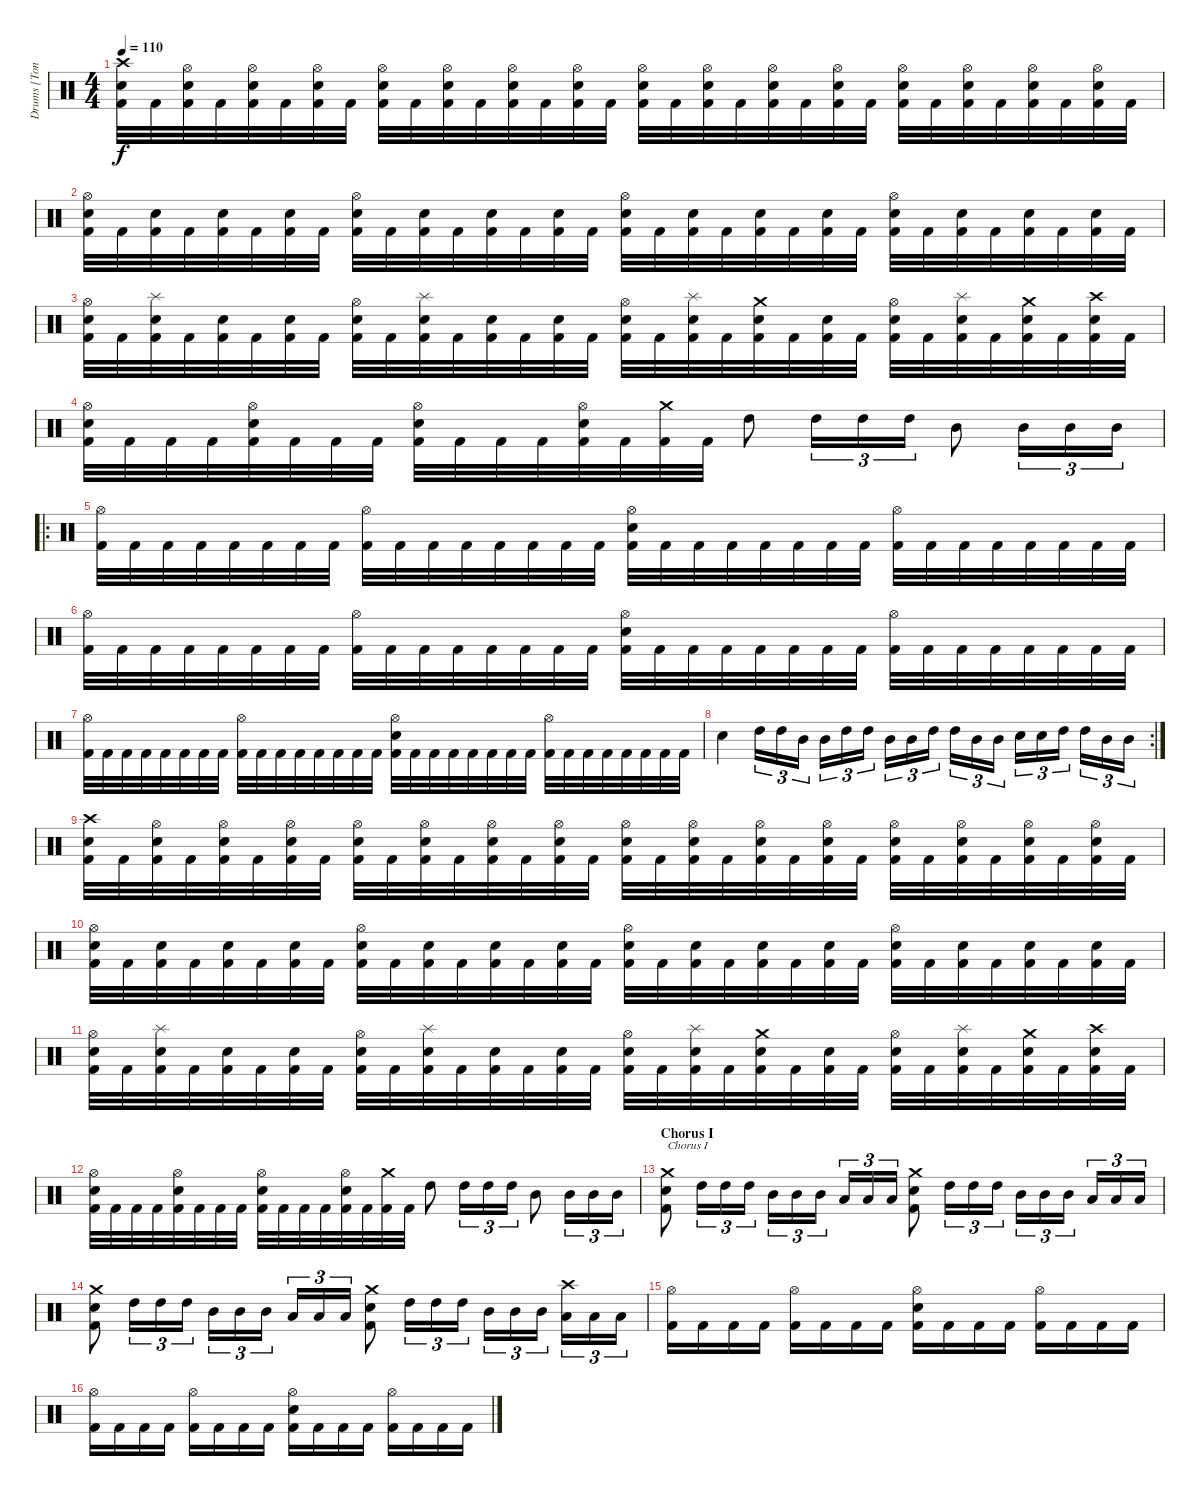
\track ("Drums [Tony Laureano]" "Drums [Ton") {instrument percussion}
\staff {score}
\articulation defaults
\ts (4 4)
\tempo 110
\clef neutral
\ks c
("Crash high (hit)" "Electric Snare (hit)" "Kick (hit) 2").32{dy f} "Kick (hit) 2".32 ("Hi-Hat (open)" "Electric Snare (hit)" "Kick (hit) 2").32 "Kick (hit) 2".32 ("Hi-Hat (open)" "Electric Snare (hit)" "Kick (hit) 2").32 "Kick (hit) 2".32 ("Hi-Hat (open)" "Electric Snare (hit)" "Kick (hit) 2").32 "Kick (hit) 2".32 ("Hi-Hat (open)" "Electric Snare (hit)" "Kick (hit) 2").32 "Kick (hit) 2".32 ("Hi-Hat (open)" "Electric Snare (hit)" "Kick (hit) 2").32 "Kick (hit) 2".32 ("Hi-Hat (open)" "Electric Snare (hit)" "Kick (hit) 2").32 "Kick (hit) 2".32 ("Hi-Hat (open)" "Electric Snare (hit)" "Kick (hit) 2").32 "Kick (hit) 2".32 ("Hi-Hat (open)" "Electric Snare (hit)" "Kick (hit) 2").32 "Kick (hit) 2".32 ("Hi-Hat (open)" "Electric Snare (hit)" "Kick (hit) 2").32 "Kick (hit) 2".32 ("Hi-Hat (open)" "Electric Snare (hit)" "Kick (hit) 2").32 "Kick (hit) 2".32 ("Hi-Hat (open)" "Electric Snare (hit)" "Kick (hit) 2").32 "Kick (hit) 2".32 ("Hi-Hat (open)" "Electric Snare (hit)" "Kick (hit) 2").32 "Kick (hit) 2".32 ("Hi-Hat (open)" "Electric Snare (hit)" "Kick (hit) 2").32 "Kick (hit) 2".32 ("Hi-Hat (open)" "Electric Snare (hit)" "Kick (hit) 2").32 "Kick (hit) 2".32 ("Hi-Hat (open)" "Electric Snare (hit)" "Kick (hit) 2").32 "Kick (hit) 2".32 |
("Hi-Hat (open)" "Electric Snare (hit)" "Kick (hit) 2").32 "Kick (hit) 2".32 ("Electric Snare (hit)" "Kick (hit) 2").32 "Kick (hit) 2".32 ("Electric Snare (hit)" "Kick (hit) 2").32 "Kick (hit) 2".32 ("Electric Snare (hit)" "Kick (hit) 2").32 "Kick (hit) 2".32 ("Hi-Hat (open)" "Electric Snare (hit)" "Kick (hit) 2").32 "Kick (hit) 2".32 ("Electric Snare (hit)" "Kick (hit) 2").32 "Kick (hit) 2".32 ("Electric Snare (hit)" "Kick (hit) 2").32 "Kick (hit) 2".32 ("Electric Snare (hit)" "Kick (hit) 2").32 "Kick (hit) 2".32 ("Hi-Hat (open)" "Electric Snare (hit)" "Kick (hit) 2").32 "Kick (hit) 2".32 ("Electric Snare (hit)" "Kick (hit) 2").32 "Kick (hit) 2".32 ("Electric Snare (hit)" "Kick (hit) 2").32 "Kick (hit) 2".32 ("Electric Snare (hit)" "Kick (hit) 2").32 "Kick (hit) 2".32 ("Hi-Hat (open)" "Electric Snare (hit)" "Kick (hit) 2").32 "Kick (hit) 2".32 ("Electric Snare (hit)" "Kick (hit) 2").32 "Kick (hit) 2".32 ("Electric Snare (hit)" "Kick (hit) 2").32 "Kick (hit) 2".32 ("Electric Snare (hit)" "Kick (hit) 2").32 "Kick (hit) 2".32 |
("Hi-Hat (open)" "Electric Snare (hit)" "Kick (hit) 2").32 "Kick (hit) 2".32 ("Splash (hit)" "Electric Snare (hit)" "Kick (hit) 2").32 "Kick (hit) 2".32 ("Electric Snare (hit)" "Kick (hit) 2").32 "Kick (hit) 2".32 ("Electric Snare (hit)" "Kick (hit) 2").32 "Kick (hit) 2".32 ("Hi-Hat (open)" "Electric Snare (hit)" "Kick (hit) 2").32 "Kick (hit) 2".32 ("Splash (hit)" "Electric Snare (hit)" "Kick (hit) 2").32 "Kick (hit) 2".32 ("Electric Snare (hit)" "Kick (hit) 2").32 "Kick (hit) 2".32 ("Electric Snare (hit)" "Kick (hit) 2").32 "Kick (hit) 2".32 ("Hi-Hat (open)" "Electric Snare (hit)" "Kick (hit) 2").32 "Kick (hit) 2".32 ("Splash (hit)" "Electric Snare (hit)" "Kick (hit) 2").32 "Kick (hit) 2".32 ("Crash medium (hit)" "Electric Snare (hit)" "Kick (hit) 2").32 "Kick (hit) 2".32 ("Electric Snare (hit)" "Kick (hit) 2").32 "Kick (hit) 2".32 ("Hi-Hat (open)" "Electric Snare (hit)" "Kick (hit) 2").32 "Kick (hit) 2".32 ("Splash (hit)" "Electric Snare (hit)" "Kick (hit) 2").32 "Kick (hit) 2".32 ("Crash medium (hit)" "Electric Snare (hit)" "Kick (hit) 2").32 "Kick (hit) 2".32 ("Crash high (hit)" "Electric Snare (hit)" "Kick (hit) 2").32 "Kick (hit) 2".32 |
("Hi-Hat (open)" "Electric Snare (hit)" "Kick (hit) 2").32 "Kick (hit) 2".32 "Kick (hit) 2".32 "Kick (hit) 2".32 ("Hi-Hat (open)" "Electric Snare (hit)" "Kick (hit) 2").32 "Kick (hit) 2".32 "Kick (hit) 2".32 "Kick (hit) 2".32 ("Hi-Hat (open)" "Electric Snare (hit)" "Kick (hit) 2").32 "Kick (hit) 2".32 "Kick (hit) 2".32 "Kick (hit) 2".32 ("Hi-Hat (open)" "Electric Snare (hit)" "Kick (hit) 2").32 "Kick (hit) 2".32 ("Crash medium (hit)" "Kick (hit) 2").32 "Kick (hit) 2".32 "High Tom (hit)".8 "High Tom (hit)".16{tu (3 2)} "High Tom (hit)".16{tu (3 2)} "High Tom (hit)".16{tu (3 2)} "Mid Tom (hit)".8 "Mid Tom (hit)".16{tu (3 2)} "Mid Tom (hit)".16{tu (3 2)} "Mid Tom (hit)".16{tu (3 2)} |
\ro
("Hi-Hat (open)" "Kick (hit) 2").32 "Kick (hit) 2".32 "Kick (hit) 2".32 "Kick (hit) 2".32 "Kick (hit) 2".32 "Kick (hit) 2".32 "Kick (hit) 2".32 "Kick (hit) 2".32 ("Hi-Hat (open)" "Kick (hit) 2").32 "Kick (hit) 2".32 "Kick (hit) 2".32 "Kick (hit) 2".32 "Kick (hit) 2".32 "Kick (hit) 2".32 "Kick (hit) 2".32 "Kick (hit) 2".32 ("Hi-Hat (open)" "Electric Snare (hit)" "Kick (hit) 2").32 "Kick (hit) 2".32 "Kick (hit) 2".32 "Kick (hit) 2".32 "Kick (hit) 2".32 "Kick (hit) 2".32 "Kick (hit) 2".32 "Kick (hit) 2".32 ("Hi-Hat (open)" "Kick (hit) 2").32 "Kick (hit) 2".32 "Kick (hit) 2".32 "Kick (hit) 2".32 "Kick (hit) 2".32 "Kick (hit) 2".32 "Kick (hit) 2".32 "Kick (hit) 2".32 |
("Hi-Hat (open)" "Kick (hit) 2").32 "Kick (hit) 2".32 "Kick (hit) 2".32 "Kick (hit) 2".32 "Kick (hit) 2".32 "Kick (hit) 2".32 "Kick (hit) 2".32 "Kick (hit) 2".32 ("Hi-Hat (open)" "Kick (hit) 2").32 "Kick (hit) 2".32 "Kick (hit) 2".32 "Kick (hit) 2".32 "Kick (hit) 2".32 "Kick (hit) 2".32 "Kick (hit) 2".32 "Kick (hit) 2".32 ("Hi-Hat (open)" "Electric Snare (hit)" "Kick (hit) 2").32 "Kick (hit) 2".32 "Kick (hit) 2".32 "Kick (hit) 2".32 "Kick (hit) 2".32 "Kick (hit) 2".32 "Kick (hit) 2".32 "Kick (hit) 2".32 ("Hi-Hat (open)" "Kick (hit) 2").32 "Kick (hit) 2".32 "Kick (hit) 2".32 "Kick (hit) 2".32 "Kick (hit) 2".32 "Kick (hit) 2".32 "Kick (hit) 2".32 "Kick (hit) 2".32 |
("Hi-Hat (open)" "Kick (hit) 2").32 "Kick (hit) 2".32 "Kick (hit) 2".32 "Kick (hit) 2".32 "Kick (hit) 2".32 "Kick (hit) 2".32 "Kick (hit) 2".32 "Kick (hit) 2".32 ("Hi-Hat (open)" "Kick (hit) 2").32 "Kick (hit) 2".32 "Kick (hit) 2".32 "Kick (hit) 2".32 "Kick (hit) 2".32 "Kick (hit) 2".32 "Kick (hit) 2".32 "Kick (hit) 2".32 ("Hi-Hat (open)" "Electric Snare (hit)" "Kick (hit) 2").32 "Kick (hit) 2".32 "Kick (hit) 2".32 "Kick (hit) 2".32 "Kick (hit) 2".32 "Kick (hit) 2".32 "Kick (hit) 2".32 "Kick (hit) 2".32 ("Hi-Hat (open)" "Kick (hit) 2").32 "Kick (hit) 2".32 "Kick (hit) 2".32 "Kick (hit) 2".32 "Kick (hit) 2".32 "Kick (hit) 2".32 "Kick (hit) 2".32 "Kick (hit) 2".32 |
\rc 2 "Electric Snare (hit)".4 "High Tom (hit)".16{tu (3 2)} "High Tom (hit)".16{tu (3 2)} "Mid Tom (hit)".16{tu (3 2)} "Mid Tom (hit)".16{tu (3 2)} "High Tom (hit)".16{tu (3 2)} "High Tom (hit)".16{tu (3 2)} "Mid Tom (hit)".16{tu (3 2)} "Mid Tom (hit)".16{tu (3 2)} "High Tom (hit)".16{tu (3 2)} "High Tom (hit)".16{tu (3 2)} "Mid Tom (hit)".16{tu (3 2)} "Mid Tom (hit)".16{tu (3 2)} "Electric Snare (hit)".16{tu (3 2)} "Electric Snare (hit)".16{tu (3 2)} "High Tom (hit)".16{tu (3 2)} "High Tom (hit)".16{tu (3 2)} "Mid Tom (hit)".16{tu (3 2)} "Mid Tom (hit)".16{tu (3 2)}
|
("Crash high (hit)" "Electric Snare (hit)" "Kick (hit) 2").32 "Kick (hit) 2".32 ("Hi-Hat (open)" "Electric Snare (hit)" "Kick (hit) 2").32 "Kick (hit) 2".32 ("Hi-Hat (open)" "Electric Snare (hit)" "Kick (hit) 2").32 "Kick (hit) 2".32 ("Hi-Hat (open)" "Electric Snare (hit)" "Kick (hit) 2").32 "Kick (hit) 2".32 ("Hi-Hat (open)" "Electric Snare (hit)" "Kick (hit) 2").32 "Kick (hit) 2".32 ("Hi-Hat (open)" "Electric Snare (hit)" "Kick (hit) 2").32 "Kick (hit) 2".32 ("Hi-Hat (open)" "Electric Snare (hit)" "Kick (hit) 2").32 "Kick (hit) 2".32 ("Hi-Hat (open)" "Electric Snare (hit)" "Kick (hit) 2").32 "Kick (hit) 2".32 ("Hi-Hat (open)" "Electric Snare (hit)" "Kick (hit) 2").32 "Kick (hit) 2".32 ("Hi-Hat (open)" "Electric Snare (hit)" "Kick (hit) 2").32 "Kick (hit) 2".32 ("Hi-Hat (open)" "Electric Snare (hit)" "Kick (hit) 2").32 "Kick (hit) 2".32 ("Hi-Hat (open)" "Electric Snare (hit)" "Kick (hit) 2").32 "Kick (hit) 2".32 ("Hi-Hat (open)" "Electric Snare (hit)" "Kick (hit) 2").32 "Kick (hit) 2".32 ("Hi-Hat (open)" "Electric Snare (hit)" "Kick (hit) 2").32 "Kick (hit) 2".32 ("Hi-Hat (open)" "Electric Snare (hit)" "Kick (hit) 2").32 "Kick (hit) 2".32 ("Hi-Hat (open)" "Electric Snare (hit)" "Kick (hit) 2").32 "Kick (hit) 2".32 |
("Hi-Hat (open)" "Electric Snare (hit)" "Kick (hit) 2").32 "Kick (hit) 2".32 ("Electric Snare (hit)" "Kick (hit) 2").32 "Kick (hit) 2".32 ("Electric Snare (hit)" "Kick (hit) 2").32 "Kick (hit) 2".32 ("Electric Snare (hit)" "Kick (hit) 2").32 "Kick (hit) 2".32 ("Hi-Hat (open)" "Electric Snare (hit)" "Kick (hit) 2").32 "Kick (hit) 2".32 ("Electric Snare (hit)" "Kick (hit) 2").32 "Kick (hit) 2".32 ("Electric Snare (hit)" "Kick (hit) 2").32 "Kick (hit) 2".32 ("Electric Snare (hit)" "Kick (hit) 2").32 "Kick (hit) 2".32 ("Hi-Hat (open)" "Electric Snare (hit)" "Kick (hit) 2").32 "Kick (hit) 2".32 ("Electric Snare (hit)" "Kick (hit) 2").32 "Kick (hit) 2".32 ("Electric Snare (hit)" "Kick (hit) 2").32 "Kick (hit) 2".32 ("Electric Snare (hit)" "Kick (hit) 2").32 "Kick (hit) 2".32 ("Hi-Hat (open)" "Electric Snare (hit)" "Kick (hit) 2").32 "Kick (hit) 2".32 ("Electric Snare (hit)" "Kick (hit) 2").32 "Kick (hit) 2".32 ("Electric Snare (hit)" "Kick (hit) 2").32 "Kick (hit) 2".32 ("Electric Snare (hit)" "Kick (hit) 2").32 "Kick (hit) 2".32 |
("Hi-Hat (open)" "Electric Snare (hit)" "Kick (hit) 2").32 "Kick (hit) 2".32 ("Splash (hit)" "Electric Snare (hit)" "Kick (hit) 2").32 "Kick (hit) 2".32 ("Electric Snare (hit)" "Kick (hit) 2").32 "Kick (hit) 2".32 ("Electric Snare (hit)" "Kick (hit) 2").32 "Kick (hit) 2".32 ("Hi-Hat (open)" "Electric Snare (hit)" "Kick (hit) 2").32 "Kick (hit) 2".32 ("Splash (hit)" "Electric Snare (hit)" "Kick (hit) 2").32 "Kick (hit) 2".32 ("Electric Snare (hit)" "Kick (hit) 2").32 "Kick (hit) 2".32 ("Electric Snare (hit)" "Kick (hit) 2").32 "Kick (hit) 2".32 ("Hi-Hat (open)" "Electric Snare (hit)" "Kick (hit) 2").32 "Kick (hit) 2".32 ("Splash (hit)" "Electric Snare (hit)" "Kick (hit) 2").32 "Kick (hit) 2".32 ("Crash medium (hit)" "Electric Snare (hit)" "Kick (hit) 2").32 "Kick (hit) 2".32 ("Electric Snare (hit)" "Kick (hit) 2").32 "Kick (hit) 2".32 ("Hi-Hat (open)" "Electric Snare (hit)" "Kick (hit) 2").32 "Kick (hit) 2".32 ("Splash (hit)" "Electric Snare (hit)" "Kick (hit) 2").32 "Kick (hit) 2".32 ("Crash medium (hit)" "Electric Snare (hit)" "Kick (hit) 2").32 "Kick (hit) 2".32 ("Crash high (hit)" "Electric Snare (hit)" "Kick (hit) 2").32 "Kick (hit) 2".32 |
("Hi-Hat (open)" "Electric Snare (hit)" "Kick (hit) 2").32 "Kick (hit) 2".32 "Kick (hit) 2".32 "Kick (hit) 2".32 ("Hi-Hat (open)" "Electric Snare (hit)" "Kick (hit) 2").32 "Kick (hit) 2".32 "Kick (hit) 2".32 "Kick (hit) 2".32 ("Hi-Hat (open)" "Electric Snare (hit)" "Kick (hit) 2").32 "Kick (hit) 2".32 "Kick (hit) 2".32 "Kick (hit) 2".32 ("Hi-Hat (open)" "Electric Snare (hit)" "Kick (hit) 2").32 "Kick (hit) 2".32 ("Crash medium (hit)" "Kick (hit) 2").32 "Kick (hit) 2".32 "High Tom (hit)".8 "High Tom (hit)".16{tu (3 2)} "High Tom (hit)".16{tu (3 2)} "High Tom (hit)".16{tu (3 2)} "Mid Tom (hit)".8 "Mid Tom (hit)".16{tu (3 2)} "Mid Tom (hit)".16{tu (3 2)} "Mid Tom (hit)".16{tu (3 2)} |
\section ("" "Chorus I")
("Crash medium (hit)" "Electric Snare (hit)" "Kick (hit) 2").8{txt "Chorus I"} "High Tom (hit)".16{tu (3 2)} "High Tom (hit)".16{tu (3 2)} "High Tom (hit)".16{tu (3 2)} "Mid Tom (hit)".16{tu (3 2)} "Mid Tom (hit)".16{tu (3 2)} "Mid Tom (hit)".16{tu (3 2)} "Low Tom (hit)".16{tu (3 2)} "Low Tom (hit)".16{tu (3 2)} "Low Tom (hit)".16{tu (3 2)} ("Crash medium (hit)" "Electric Snare (hit)" "Kick (hit) 2").8 "High Tom (hit)".16{tu (3 2)} "High Tom (hit)".16{tu (3 2)} "High Tom (hit)".16{tu (3 2)} "Mid Tom (hit)".16{tu (3 2)} "Mid Tom (hit)".16{tu (3 2)} "Mid Tom (hit)".16{tu (3 2)} "Low Tom (hit)".16{tu (3 2)} "Low Tom (hit)".16{tu (3 2)} "Low Tom (hit)".16{tu (3 2)} |
("Crash medium (hit)" "Electric Snare (hit)" "Kick (hit) 2").8 "High Tom (hit)".16{tu (3 2)} "High Tom (hit)".16{tu (3 2)} "High Tom (hit)".16{tu (3 2)} "Mid Tom (hit)".16{tu (3 2)} "Mid Tom (hit)".16{tu (3 2)} "Mid Tom (hit)".16{tu (3 2)} "Low Tom (hit)".16{tu (3 2)} "Low Tom (hit)".16{tu (3 2)} "Low Tom (hit)".16{tu (3 2)} ("Crash medium (hit)" "Electric Snare (hit)" "Kick (hit) 2").8 "High Tom (hit)".16{tu (3 2)} "High Tom (hit)".16{tu (3 2)} "High Tom (hit)".16{tu (3 2)} "Mid Tom (hit)".16{tu (3 2)} "Mid Tom (hit)".16{tu (3 2)} "Mid Tom (hit)".16{tu (3 2)} ("Crash high (hit)" "Low Tom (hit)").16{tu (3 2)} "Low Tom (hit)".16{tu (3 2)} "Low Tom (hit)".16{tu (3 2)} |
("Hi-Hat (open)" "Kick (hit) 2").16 "Kick (hit) 2".16 "Kick (hit) 2".16 "Kick (hit) 2".16 ("Hi-Hat (open)" "Kick (hit) 2").16 "Kick (hit) 2".16 "Kick (hit) 2".16 "Kick (hit) 2".16 ("Hi-Hat (open)" "Electric Snare (hit)" "Kick (hit) 2").16 "Kick (hit) 2".16 "Kick (hit) 2".16 "Kick (hit) 2".16 ("Hi-Hat (open)" "Kick (hit) 2").16 "Kick (hit) 2".16 "Kick (hit) 2".16 "Kick (hit) 2".16 |
("Hi-Hat (open)" "Kick (hit) 2").16 "Kick (hit) 2".16 "Kick (hit) 2".16 "Kick (hit) 2".16 ("Hi-Hat (open)" "Kick (hit) 2").16 "Kick (hit) 2".16 "Kick (hit) 2".16 "Kick (hit) 2".16 ("Hi-Hat (open)" "Electric Snare (hit)" "Kick (hit) 2").16 "Kick (hit) 2".16 "Kick (hit) 2".16 "Kick (hit) 2".16 ("Hi-Hat (open)" "Kick (hit) 2").16 "Kick (hit) 2".16 "Kick (hit) 2".16 "Kick (hit) 2".16
